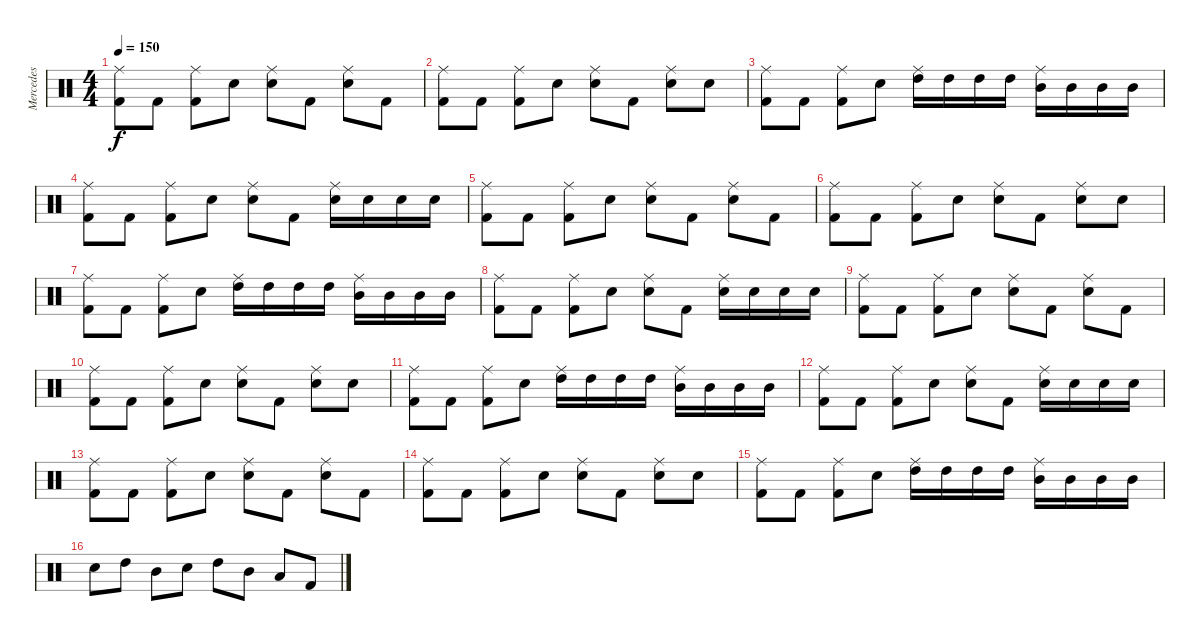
\track ("Mercedes" "Mercedes") {instrument percussion}
\staff {score}
\articulation defaults
\ts (4 4)
\tempo 150
\clef neutral
\ks c
("Kick (hit) 2" "Ride (middle)").8{dy f} "Kick (hit) 2".8 ("Kick (hit) 2" "Ride (middle)").8 "Snare (hit) 2".8 ("Snare (hit) 2" "Ride (middle)").8 "Kick (hit) 2".8 ("Snare (hit) 2" "Ride (middle)").8 "Kick (hit) 2".8 |
("Kick (hit) 2" "Ride (middle)").8 "Kick (hit) 2".8 ("Kick (hit) 2" "Ride (middle)").8 "Snare (hit) 2".8 ("Snare (hit) 2" "Ride (middle)").8 "Kick (hit) 2".8 ("Snare (hit) 2" "Ride (middle)").8 "Snare (hit) 2".8 |
("Kick (hit) 2" "Ride (middle)").8 "Kick (hit) 2".8 ("Kick (hit) 2" "Ride (middle)").8 "Snare (hit) 2".8 ("High Tom (hit)" "Ride (middle)").16 "High Tom (hit)".16 "High Tom (hit)".16 "High Tom (hit)".16 ("Mid Tom (hit)" "Ride (middle)").16 "Mid Tom (hit)".16 "Mid Tom (hit)".16 "Mid Tom (hit)".16 |
("Kick (hit) 2" "Ride (middle)").8 "Kick (hit) 2".8 ("Kick (hit) 2" "Ride (middle)").8 "Snare (hit) 2".8 ("Snare (hit) 2" "Ride (middle)").8 "Kick (hit) 2".8 ("Snare (hit) 2" "Ride (middle)").16 "Snare (hit) 2".16 "Snare (hit) 2".16 "Snare (hit) 2".16 |
("Kick (hit) 2" "Ride (middle)").8 "Kick (hit) 2".8 ("Kick (hit) 2" "Ride (middle)").8 "Snare (hit) 2".8 ("Snare (hit) 2" "Ride (middle)").8 "Kick (hit) 2".8 ("Snare (hit) 2" "Ride (middle)").8 "Kick (hit) 2".8 |
("Kick (hit) 2" "Ride (middle)").8 "Kick (hit) 2".8 ("Kick (hit) 2" "Ride (middle)").8 "Snare (hit) 2".8 ("Snare (hit) 2" "Ride (middle)").8 "Kick (hit) 2".8 ("Snare (hit) 2" "Ride (middle)").8 "Snare (hit) 2".8 |
("Kick (hit) 2" "Ride (middle)").8 "Kick (hit) 2".8 ("Kick (hit) 2" "Ride (middle)").8 "Snare (hit) 2".8 ("High Tom (hit)" "Ride (middle)").16 "High Tom (hit)".16 "High Tom (hit)".16 "High Tom (hit)".16 ("Mid Tom (hit)" "Ride (middle)").16 "Mid Tom (hit)".16 "Mid Tom (hit)".16 "Mid Tom (hit)".16 |
("Kick (hit) 2" "Ride (middle)").8 "Kick (hit) 2".8 ("Kick (hit) 2" "Ride (middle)").8 "Snare (hit) 2".8 ("Snare (hit) 2" "Ride (middle)").8 "Kick (hit) 2".8 ("Snare (hit) 2" "Ride (middle)").16 "Snare (hit) 2".16 "Snare (hit) 2".16 "Snare (hit) 2".16 |
("Kick (hit) 2" "Ride (middle)").8 "Kick (hit) 2".8 ("Kick (hit) 2" "Ride (middle)").8 "Snare (hit) 2".8 ("Snare (hit) 2" "Ride (middle)").8 "Kick (hit) 2".8 ("Snare (hit) 2" "Ride (middle)").8 "Kick (hit) 2".8 |
("Kick (hit) 2" "Ride (middle)").8 "Kick (hit) 2".8 ("Kick (hit) 2" "Ride (middle)").8 "Snare (hit) 2".8 ("Snare (hit) 2" "Ride (middle)").8 "Kick (hit) 2".8 ("Snare (hit) 2" "Ride (middle)").8 "Snare (hit) 2".8 |
("Kick (hit) 2" "Ride (middle)").8 "Kick (hit) 2".8 ("Kick (hit) 2" "Ride (middle)").8 "Snare (hit) 2".8 ("High Tom (hit)" "Ride (middle)").16 "High Tom (hit)".16 "High Tom (hit)".16 "High Tom (hit)".16 ("Mid Tom (hit)" "Ride (middle)").16 "Mid Tom (hit)".16 "Mid Tom (hit)".16 "Mid Tom (hit)".16 |
("Kick (hit) 2" "Ride (middle)").8 "Kick (hit) 2".8 ("Kick (hit) 2" "Ride (middle)").8 "Snare (hit) 2".8 ("Snare (hit) 2" "Ride (middle)").8 "Kick (hit) 2".8 ("Snare (hit) 2" "Ride (middle)").16 "Snare (hit) 2".16 "Snare (hit) 2".16 "Snare (hit) 2".16 |
("Kick (hit) 2" "Ride (middle)").8 "Kick (hit) 2".8 ("Kick (hit) 2" "Ride (middle)").8 "Snare (hit) 2".8 ("Snare (hit) 2" "Ride (middle)").8 "Kick (hit) 2".8 ("Snare (hit) 2" "Ride (middle)").8 "Kick (hit) 2".8 |
("Kick (hit) 2" "Ride (middle)").8 "Kick (hit) 2".8 ("Kick (hit) 2" "Ride (middle)").8 "Snare (hit) 2".8 ("Snare (hit) 2" "Ride (middle)").8 "Kick (hit) 2".8 ("Snare (hit) 2" "Ride (middle)").8 "Snare (hit) 2".8 |
("Kick (hit) 2" "Ride (middle)").8 "Kick (hit) 2".8 ("Kick (hit) 2" "Ride (middle)").8 "Snare (hit) 2".8 ("High Tom (hit)" "Ride (middle)").16 "High Tom (hit)".16 "High Tom (hit)".16 "High Tom (hit)".16 ("Mid Tom (hit)" "Ride (middle)").16 "Mid Tom (hit)".16 "Mid Tom (hit)".16 "Mid Tom (hit)".16 |
"Snare (hit) 2".8 "High Tom (hit)".8 "Mid Tom (hit)".8 "Snare (hit) 2".8 "High Tom (hit)".8 "Mid Tom (hit)".8 "Low Tom (hit)".8 "Kick (hit) 2".8
